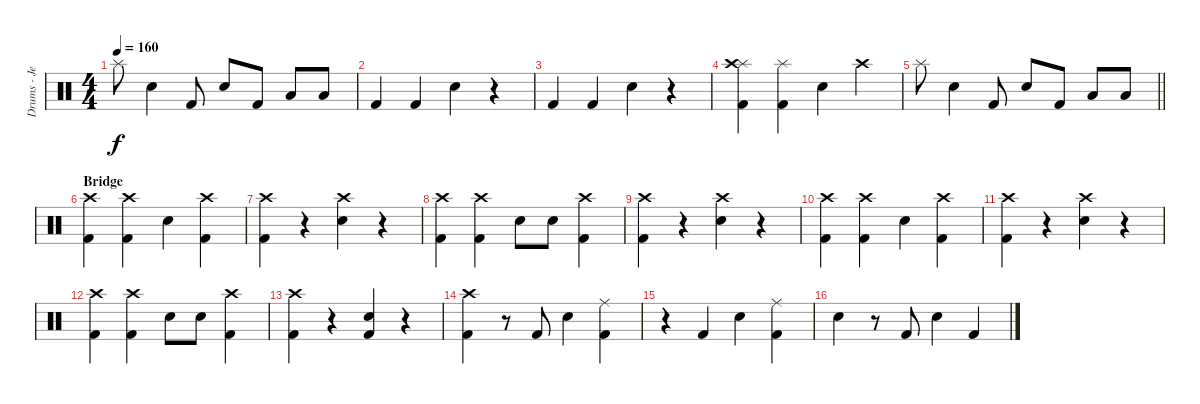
\track ("Drums - Jen Ledger" "Drums - Je") {instrument percussion}
\staff {score}
\articulation defaults
\ts (4 4)
\tempo 160
\clef neutral
\ks c "Splash (hit)".8{dy f} "Snare (hit) 2".4 "Kick (hit) 2".8 "Snare (hit) 2".8 "Kick (hit) 2".8 "Low Floor Tom (hit)".8 "Low Floor Tom (hit)".8
|
"Kick (hit) 2".4 "Kick (hit) 2".4 "Snare (hit) 2".4 r.4 |
"Kick (hit) 2".4 "Kick (hit) 2".4 "Snare (hit) 2".4 r.4 |
("Kick (hit) 2" "Splash (hit)" "Crash high (hit)").4 ("Kick (hit) 2" "Splash (hit)").4 "Snare (hit) 2".4 "Crash high (hit)".4 |
\barLineRight lightlight "Splash (hit)".8 "Snare (hit) 2".4 "Kick (hit) 2".8 "Snare (hit) 2".8 "Kick (hit) 2".8 "Low Floor Tom (hit)".8 "Low Floor Tom (hit)".8
|
\section ("" "Bridge")
("Kick (hit) 2" "Crash high (hit)").4 ("Kick (hit) 2" "Crash high (hit)").4 "Snare (hit) 2".4 ("Kick (hit) 2" "Crash high (hit)").4 |
("Kick (hit) 2" "Crash high (hit)").4 r.4 ("Crash high (hit)" "Snare (hit) 2").4 r.4 |
("Kick (hit) 2" "Crash high (hit)").4 ("Kick (hit) 2" "Crash high (hit)").4 "Snare (hit) 2".8 "Snare (hit) 2".8 ("Kick (hit) 2" "Crash high (hit)").4 |
("Kick (hit) 2" "Crash high (hit)").4 r.4 ("Crash high (hit)" "Snare (hit) 2").4 r.4 |
("Kick (hit) 2" "Crash high (hit)").4 ("Kick (hit) 2" "Crash high (hit)").4 "Snare (hit) 2".4 ("Kick (hit) 2" "Crash high (hit)").4 |
("Kick (hit) 2" "Crash high (hit)").4 r.4 ("Crash high (hit)" "Snare (hit) 2").4 r.4 |
("Kick (hit) 2" "Crash high (hit)").4 ("Kick (hit) 2" "Crash high (hit)").4 "Snare (hit) 2".8 "Snare (hit) 2".8 ("Kick (hit) 2" "Crash high (hit)").4 |
("Kick (hit) 2" "Crash high (hit)").4 r.4 ("Kick (hit) 2" "Snare (hit) 2").4 r.4 |
("Kick (hit) 2" "Crash high (hit)").4 r.8 "Kick (hit) 2".8 "Snare (hit) 2".4 ("Kick (hit) 2" "Ride (middle)").4 |
r.4 "Kick (hit) 2".4 "Snare (hit) 2".4 ("Kick (hit) 2" "Ride (middle)").4 |
"Snare (hit) 2".4 r.8 "Kick (hit) 2".8 "Snare (hit) 2".4 "Kick (hit) 2".4
